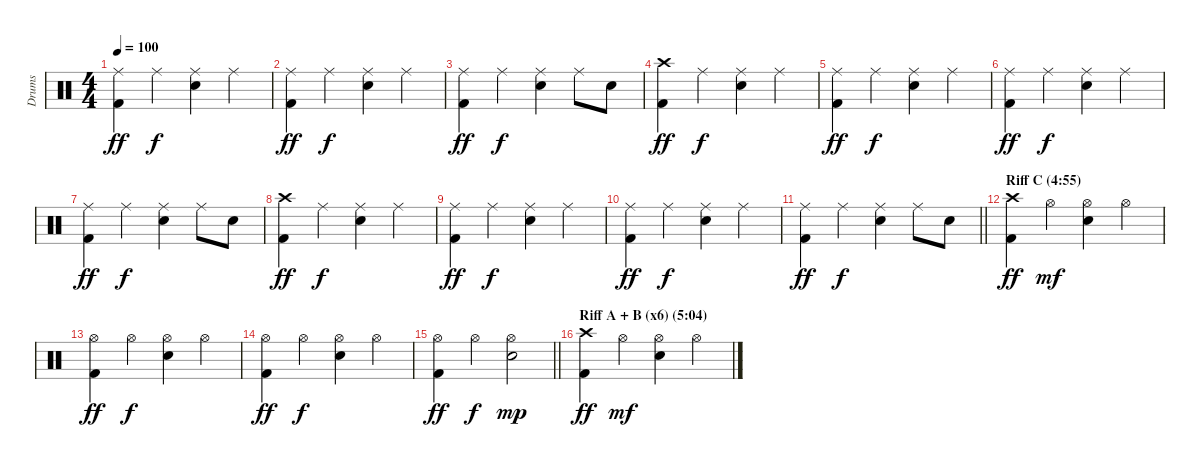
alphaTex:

\track ("Drums" "Drums") {instrument percussion}
\staff {score}
\articulation defaults
\ts (4 4)
\tempo 100
\clef neutral
\ks c
("Ride (middle)" "Kick (hit) 2").4{dy ff} "Ride (middle)".4{dy f} ("Ride (middle)" "Electric Snare (hit)").4 "Ride (middle)".4 |
("Ride (middle)" "Kick (hit) 2").4{dy ff} "Ride (middle)".4{dy f} ("Ride (middle)" "Electric Snare (hit)").4 "Ride (middle)".4 |
("Ride (middle)" "Kick (hit) 2").4{dy ff} "Ride (middle)".4{dy f} ("Ride (middle)" "Electric Snare (hit)").4 "Ride (middle)".8 "Electric Snare (hit)".8 |
("Crash high (hit)" "Kick (hit) 2").4{dy ff} "Ride (middle)".4{dy f} ("Ride (middle)" "Electric Snare (hit)").4 "Ride (middle)".4 |
("Ride (middle)" "Kick (hit) 2").4{dy ff} "Ride (middle)".4{dy f} ("Ride (middle)" "Electric Snare (hit)").4 "Ride (middle)".4 |
("Ride (middle)" "Kick (hit) 2").4{dy ff} "Ride (middle)".4{dy f} ("Ride (middle)" "Electric Snare (hit)").4 "Ride (middle)".4 |
("Ride (middle)" "Kick (hit) 2").4{dy ff} "Ride (middle)".4{dy f} ("Ride (middle)" "Electric Snare (hit)").4 "Ride (middle)".8 "Electric Snare (hit)".8 |
("Crash high (hit)" "Kick (hit) 2").4{dy ff} "Ride (middle)".4{dy f} ("Ride (middle)" "Electric Snare (hit)").4 "Ride (middle)".4 |
("Ride (middle)" "Kick (hit) 2").4{dy ff} "Ride (middle)".4{dy f} ("Ride (middle)" "Electric Snare (hit)").4 "Ride (middle)".4 |
("Ride (middle)" "Kick (hit) 2").4{dy ff} "Ride (middle)".4{dy f} ("Ride (middle)" "Electric Snare (hit)").4 "Ride (middle)".4 |
\barLineRight lightlight
("Ride (middle)" "Kick (hit) 2").4{dy ff} "Ride (middle)".4{dy f} ("Ride (middle)" "Electric Snare (hit)").4 "Ride (middle)".8 "Electric Snare (hit)".8 |
\section ("" "Riff C (4:55)")
("Crash high (hit)" "Kick (hit) 2").4{dy ff} "Hi-Hat (open)".4{dy mf} ("Hi-Hat (open)" "Electric Snare (hit)").4 "Hi-Hat (open)".4 |
("Hi-Hat (open)" "Kick (hit) 2").4{dy ff} "Hi-Hat (open)".4{dy f} ("Hi-Hat (open)" "Electric Snare (hit)").4 "Hi-Hat (open)".4 |
("Hi-Hat (open)" "Kick (hit) 2").4{dy ff} "Hi-Hat (open)".4{dy f} ("Hi-Hat (open)" "Electric Snare (hit)").4 "Hi-Hat (open)".4 |
\barLineRight lightlight
("Hi-Hat (open)" "Kick (hit) 2").4{dy ff} "Hi-Hat (open)".4{dy f} ("Hi-Hat (open)" "Electric Snare (hit)").2{dy mp} |
\section ("" "Riff A + B (x6) (5:04)")
("Crash high (hit)" "Kick (hit) 2").4{dy ff} "Hi-Hat (open)".4{dy mf} ("Hi-Hat (open)" "Electric Snare (hit)").4 "Hi-Hat (open)".4
